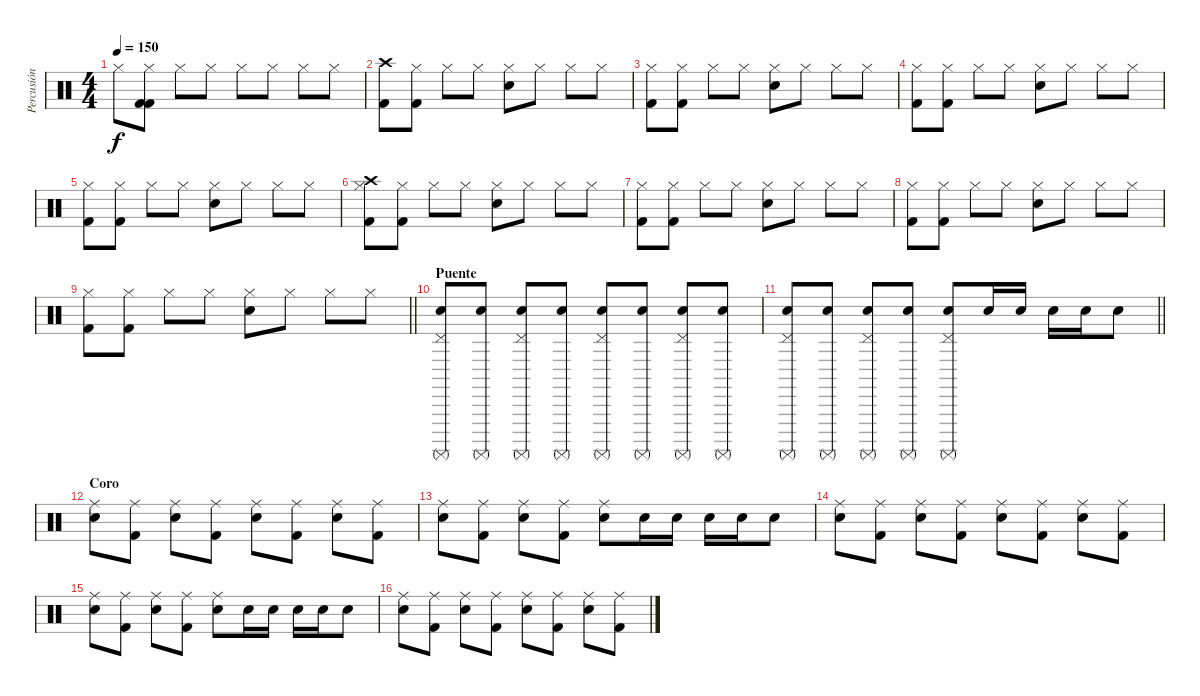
\track ("Percusión" "Percusión") {instrument percussion}
\staff {score}
\articulation defaults
\ts (4 4)
\tempo 150
\clef neutral
\ks c "Hi-Hat (closed)".8{dy f}
("Hi-Hat (closed)" "Kick (hit) 2" "Kick (hit) 2").8 "Hi-Hat (closed)".8 "Hi-Hat (closed)".8 "Hi-Hat (closed)".8 "Hi-Hat (closed)".8 "Hi-Hat (closed)".8 "Hi-Hat (closed)".8 |
("Crash high (hit)" "Kick (hit) 2").8 ("Hi-Hat (closed)" "Kick (hit) 2").8 "Hi-Hat (closed)".8 "Hi-Hat (closed)".8 ("Hi-Hat (closed)" "Snare (hit) 2").8 "Hi-Hat (closed)".8 "Hi-Hat (closed)".8 "Hi-Hat (closed)".8 |
("Hi-Hat (closed)" "Kick (hit) 2").8 ("Hi-Hat (closed)" "Kick (hit) 2").8 "Hi-Hat (closed)".8 "Hi-Hat (closed)".8 ("Hi-Hat (closed)" "Snare (hit) 2").8 "Hi-Hat (closed)".8 "Hi-Hat (closed)".8 "Hi-Hat (closed)".8 |
("Hi-Hat (closed)" "Kick (hit) 2").8 ("Hi-Hat (closed)" "Kick (hit) 2").8 "Hi-Hat (closed)".8 "Hi-Hat (closed)".8 ("Hi-Hat (closed)" "Snare (hit) 2").8 "Hi-Hat (closed)".8 "Hi-Hat (closed)".8 "Hi-Hat (closed)".8 |
("Hi-Hat (closed)" "Kick (hit) 2").8 ("Hi-Hat (closed)" "Kick (hit) 2").8 "Hi-Hat (closed)".8 "Hi-Hat (closed)".8 ("Hi-Hat (closed)" "Snare (hit) 2").8 "Hi-Hat (closed)".8 "Hi-Hat (closed)".8 "Hi-Hat (closed)".8 |
("Crash high (hit)" "Hi-Hat (closed)" "Kick (hit) 2").8 ("Hi-Hat (closed)" "Kick (hit) 2").8 "Hi-Hat (closed)".8 "Hi-Hat (closed)".8 ("Hi-Hat (closed)" "Snare (hit) 2").8 "Hi-Hat (closed)".8 "Hi-Hat (closed)".8 "Hi-Hat (closed)".8 |
("Hi-Hat (closed)" "Kick (hit) 2").8 ("Hi-Hat (closed)" "Kick (hit) 2").8 "Hi-Hat (closed)".8 "Hi-Hat (closed)".8 ("Hi-Hat (closed)" "Snare (hit) 2").8 "Hi-Hat (closed)".8 "Hi-Hat (closed)".8 "Hi-Hat (closed)".8 |
("Hi-Hat (closed)" "Kick (hit) 2").8 ("Hi-Hat (closed)" "Kick (hit) 2").8 "Hi-Hat (closed)".8 "Hi-Hat (closed)".8 ("Hi-Hat (closed)" "Snare (hit) 2").8 "Hi-Hat (closed)".8 "Hi-Hat (closed)".8 "Hi-Hat (closed)".8 |
\barLineRight lightlight
("Hi-Hat (closed)" "Kick (hit) 2").8 ("Hi-Hat (closed)" "Kick (hit) 2").8 "Hi-Hat (closed)".8 "Hi-Hat (closed)".8 ("Hi-Hat (closed)" "Snare (hit) 2").8 "Hi-Hat (closed)".8 "Hi-Hat (closed)".8 "Hi-Hat (closed)".8 |
\section ("" "Puente")
("Pedal Hi-Hat (hit)" "Snare (hit) 2" "Surdo (mute)").8 ("Snare (hit) 2" "Surdo (mute)").8 ("Pedal Hi-Hat (hit)" "Snare (hit) 2" "Surdo (mute)").8 ("Snare (hit) 2" "Surdo (mute)").8 ("Pedal Hi-Hat (hit)" "Snare (hit) 2" "Surdo (mute)").8 ("Snare (hit) 2" "Surdo (mute)").8 ("Pedal Hi-Hat (hit)" "Snare (hit) 2" "Surdo (mute)").8 ("Snare (hit) 2" "Surdo (mute)").8 |
\barLineRight lightlight
("Pedal Hi-Hat (hit)" "Snare (hit) 2" "Surdo (mute)").8 ("Snare (hit) 2" "Surdo (mute)").8 ("Pedal Hi-Hat (hit)" "Snare (hit) 2" "Surdo (mute)").8 ("Snare (hit) 2" "Surdo (mute)").8 ("Pedal Hi-Hat (hit)" "Snare (hit) 2" "Surdo (mute)").8 "Snare (hit) 2".16 "Snare (hit) 2".16 "Snare (hit) 2".16 "Snare (hit) 2".16 "Snare (hit) 2".8 |
\section ("" "Coro")
("Ride (middle)" "Snare (hit) 2").8 ("Ride (middle)" "Kick (hit) 2").8 ("Ride (middle)" "Snare (hit) 2").8 ("Ride (middle)" "Kick (hit) 2").8 ("Ride (middle)" "Snare (hit) 2").8 ("Ride (middle)" "Kick (hit) 2").8 ("Ride (middle)" "Snare (hit) 2").8 ("Ride (middle)" "Kick (hit) 2").8 |
("Ride (middle)" "Snare (hit) 2").8 ("Ride (middle)" "Kick (hit) 2").8 ("Ride (middle)" "Snare (hit) 2").8 ("Ride (middle)" "Kick (hit) 2").8 ("Ride (middle)" "Snare (hit) 2").8 "Snare (hit) 2".16 "Snare (hit) 2".16 "Snare (hit) 2".16 "Snare (hit) 2".16 "Snare (hit) 2".8 |
("Ride (middle)" "Snare (hit) 2").8 ("Ride (middle)" "Kick (hit) 2").8 ("Ride (middle)" "Snare (hit) 2").8 ("Ride (middle)" "Kick (hit) 2").8 ("Ride (middle)" "Snare (hit) 2").8 ("Ride (middle)" "Kick (hit) 2").8 ("Ride (middle)" "Snare (hit) 2").8 ("Ride (middle)" "Kick (hit) 2").8 |
("Ride (middle)" "Snare (hit) 2").8 ("Ride (middle)" "Kick (hit) 2").8 ("Ride (middle)" "Snare (hit) 2").8 ("Ride (middle)" "Kick (hit) 2").8 ("Ride (middle)" "Snare (hit) 2").8 "Snare (hit) 2".16 "Snare (hit) 2".16 "Snare (hit) 2".16 "Snare (hit) 2".16 "Snare (hit) 2".8 |
("Ride (middle)" "Snare (hit) 2").8 ("Ride (middle)" "Kick (hit) 2").8 ("Ride (middle)" "Snare (hit) 2").8 ("Ride (middle)" "Kick (hit) 2").8 ("Ride (middle)" "Snare (hit) 2").8 ("Ride (middle)" "Kick (hit) 2").8 ("Ride (middle)" "Snare (hit) 2").8 ("Ride (middle)" "Kick (hit) 2").8
